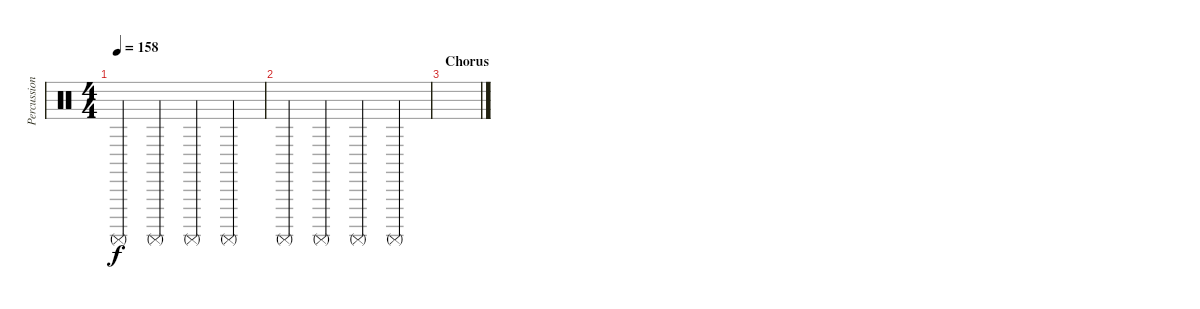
\track ("Percussion" "Percussion") {instrument percussion}
\staff {score}
\articulation defaults
\ts (4 4)
\tempo 158
\clef neutral
\ks c "Surdo (mute)".4{dy f} "Surdo (mute)".4 "Surdo (mute)".4 "Surdo (mute)".4
|
"Surdo (mute)".4 "Surdo (mute)".4 "Surdo (mute)".4 "Surdo (mute)".4 |
\section ("" "Chorus")
